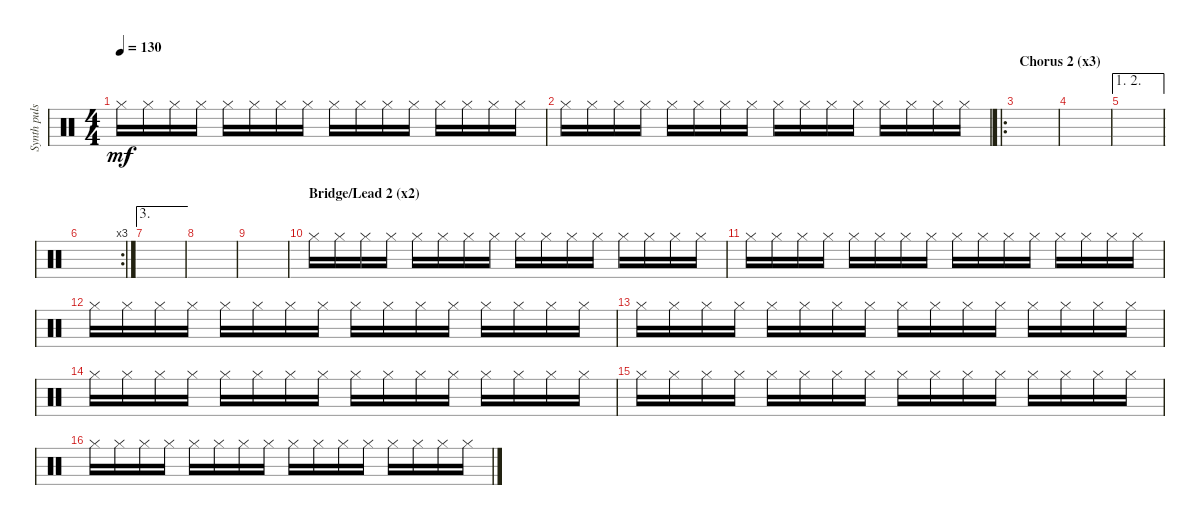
\track ("Synth pulse perc" "Synth puls") {instrument percussion}
\staff {score}
\articulation defaults
\ts (4 4)
\tempo 130
\clef neutral
\ks c "Hi-Hat (closed)".16{dy mf} "Hi-Hat (closed)".16 "Hi-Hat (closed)".16 "Hi-Hat (closed)".16 "Hi-Hat (closed)".16 "Hi-Hat (closed)".16 "Hi-Hat (closed)".16 "Hi-Hat (closed)".16 "Hi-Hat (closed)".16 "Hi-Hat (closed)".16 "Hi-Hat (closed)".16 "Hi-Hat (closed)".16 "Hi-Hat (closed)".16 "Hi-Hat (closed)".16 "Hi-Hat (closed)".16 "Hi-Hat (closed)".16
|
"Hi-Hat (closed)".16 "Hi-Hat (closed)".16 "Hi-Hat (closed)".16 "Hi-Hat (closed)".16 "Hi-Hat (closed)".16 "Hi-Hat (closed)".16 "Hi-Hat (closed)".16 "Hi-Hat (closed)".16 "Hi-Hat (closed)".16 "Hi-Hat (closed)".16 "Hi-Hat (closed)".16 "Hi-Hat (closed)".16 "Hi-Hat (closed)".16 "Hi-Hat (closed)".16 "Hi-Hat (closed)".16 "Hi-Hat (closed)".16 |
\ro
\section ("" "Chorus 2 (x3)")
|
|
\ae (1 2)
|
\rc 3
|
\ae 3
|
|
|
\section ("" "Bridge/Lead 2 (x2)")
"Hi-Hat (closed)".16 "Hi-Hat (closed)".16 "Hi-Hat (closed)".16 "Hi-Hat (closed)".16 "Hi-Hat (closed)".16 "Hi-Hat (closed)".16 "Hi-Hat (closed)".16 "Hi-Hat (closed)".16 "Hi-Hat (closed)".16 "Hi-Hat (closed)".16 "Hi-Hat (closed)".16 "Hi-Hat (closed)".16 "Hi-Hat (closed)".16 "Hi-Hat (closed)".16 "Hi-Hat (closed)".16 "Hi-Hat (closed)".16 |
"Hi-Hat (closed)".16 "Hi-Hat (closed)".16 "Hi-Hat (closed)".16 "Hi-Hat (closed)".16 "Hi-Hat (closed)".16 "Hi-Hat (closed)".16 "Hi-Hat (closed)".16 "Hi-Hat (closed)".16 "Hi-Hat (closed)".16 "Hi-Hat (closed)".16 "Hi-Hat (closed)".16 "Hi-Hat (closed)".16 "Hi-Hat (closed)".16 "Hi-Hat (closed)".16 "Hi-Hat (closed)".16 "Hi-Hat (closed)".16 |
"Hi-Hat (closed)".16 "Hi-Hat (closed)".16 "Hi-Hat (closed)".16 "Hi-Hat (closed)".16 "Hi-Hat (closed)".16 "Hi-Hat (closed)".16 "Hi-Hat (closed)".16 "Hi-Hat (closed)".16 "Hi-Hat (closed)".16 "Hi-Hat (closed)".16 "Hi-Hat (closed)".16 "Hi-Hat (closed)".16 "Hi-Hat (closed)".16 "Hi-Hat (closed)".16 "Hi-Hat (closed)".16 "Hi-Hat (closed)".16 |
"Hi-Hat (closed)".16 "Hi-Hat (closed)".16 "Hi-Hat (closed)".16 "Hi-Hat (closed)".16 "Hi-Hat (closed)".16 "Hi-Hat (closed)".16 "Hi-Hat (closed)".16 "Hi-Hat (closed)".16 "Hi-Hat (closed)".16 "Hi-Hat (closed)".16 "Hi-Hat (closed)".16 "Hi-Hat (closed)".16 "Hi-Hat (closed)".16 "Hi-Hat (closed)".16 "Hi-Hat (closed)".16 "Hi-Hat (closed)".16 |
"Hi-Hat (closed)".16 "Hi-Hat (closed)".16 "Hi-Hat (closed)".16 "Hi-Hat (closed)".16 "Hi-Hat (closed)".16 "Hi-Hat (closed)".16 "Hi-Hat (closed)".16 "Hi-Hat (closed)".16 "Hi-Hat (closed)".16 "Hi-Hat (closed)".16 "Hi-Hat (closed)".16 "Hi-Hat (closed)".16 "Hi-Hat (closed)".16 "Hi-Hat (closed)".16 "Hi-Hat (closed)".16 "Hi-Hat (closed)".16 |
"Hi-Hat (closed)".16 "Hi-Hat (closed)".16 "Hi-Hat (closed)".16 "Hi-Hat (closed)".16 "Hi-Hat (closed)".16 "Hi-Hat (closed)".16 "Hi-Hat (closed)".16 "Hi-Hat (closed)".16 "Hi-Hat (closed)".16 "Hi-Hat (closed)".16 "Hi-Hat (closed)".16 "Hi-Hat (closed)".16 "Hi-Hat (closed)".16 "Hi-Hat (closed)".16 "Hi-Hat (closed)".16 "Hi-Hat (closed)".16 |
"Hi-Hat (closed)".16 "Hi-Hat (closed)".16 "Hi-Hat (closed)".16 "Hi-Hat (closed)".16 "Hi-Hat (closed)".16 "Hi-Hat (closed)".16 "Hi-Hat (closed)".16 "Hi-Hat (closed)".16 "Hi-Hat (closed)".16 "Hi-Hat (closed)".16 "Hi-Hat (closed)".16 "Hi-Hat (closed)".16 "Hi-Hat (closed)".16 "Hi-Hat (closed)".16 "Hi-Hat (closed)".16 "Hi-Hat (closed)".16
